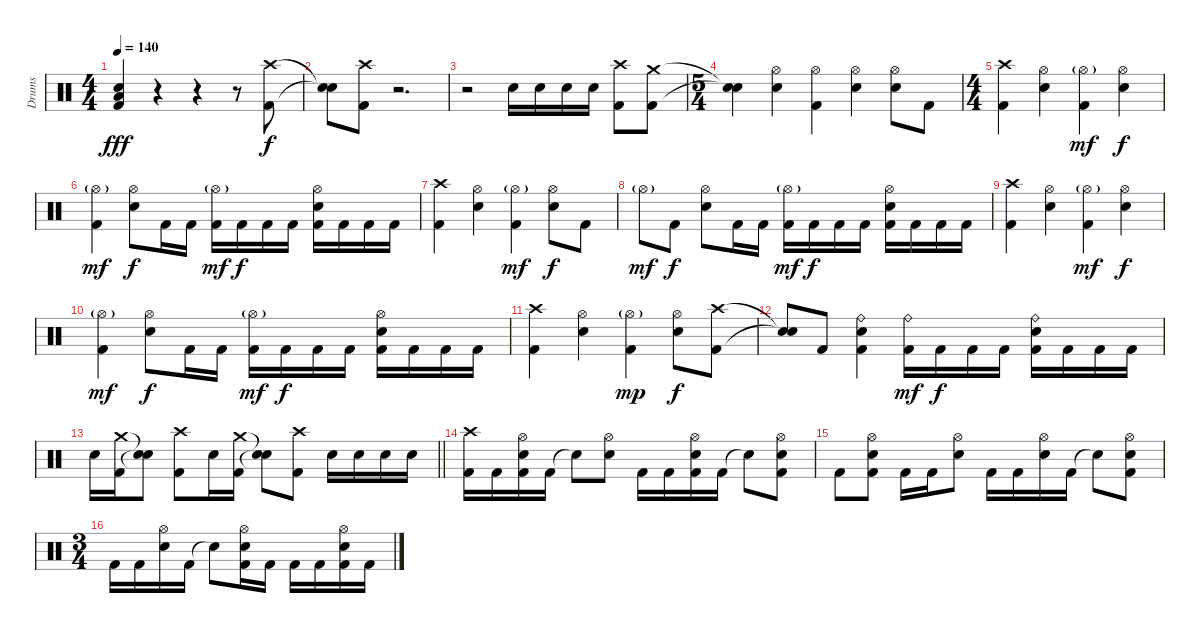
\track ("Drums" "Drums") {instrument percussion}
\staff {score}
\articulation defaults
\ts (4 4)
\tempo 140
\clef neutral
\ks c
("Low Tom (hit)" "Electric Snare (hit)" "Kick (hit) 2").4{dy fff} r.4 r.4 r.8 ("Crash high (hit)" "Kick (hit) 2").8{dy f} |
("Snare (hit)"{t} "Snare (hit)"{t}).8{volume 0} ("Crash high (hit)" "Kick (hit) 2").8{volume 16} r.2{d volume 0} |
r.2 "Electric Snare (hit)".16{volume 16} "Electric Snare (hit)".16 "Electric Snare (hit)".16 "Electric Snare (hit)".16 ("Crash high (hit)" "Kick (hit) 2").8 ("Crash medium (hit)" "Kick (hit) 2").8 |
\ts (5 4)
("Snare (hit)"{t} "Snare (hit)"{t}).4 ("Hi-Hat (open)" "Electric Snare (hit)").4 ("Hi-Hat (open)" "Kick (hit) 2").4 ("Hi-Hat (open)" "Electric Snare (hit)").4 ("Hi-Hat (open)" "Electric Snare (hit)").8 "Kick (hit) 2".8 |
\ts (4 4)
("Crash high (hit)" "Kick (hit) 2").4 ("Hi-Hat (open)" "Electric Snare (hit)").4 ("Hi-Hat (open)"{g} "Kick (hit) 2").4{dy mf} ("Hi-Hat (open)" "Electric Snare (hit)").4{dy f} |
("Hi-Hat (open)"{g} "Kick (hit) 2").4{dy mf} ("Hi-Hat (open)" "Electric Snare (hit)").8{dy f} "Kick (hit) 2".16 "Kick (hit) 2".16 ("Hi-Hat (open)"{g} "Kick (hit) 2").16{dy mf} "Kick (hit) 2".16{dy f} "Kick (hit) 2".16 "Kick (hit) 2".16 ("Hi-Hat (open)" "Electric Snare (hit)" "Kick (hit) 2").16 "Kick (hit) 2".16 "Kick (hit) 2".16 "Kick (hit) 2".16 |
("Crash high (hit)" "Kick (hit) 2").4 ("Hi-Hat (open)" "Electric Snare (hit)").4 ("Hi-Hat (open)"{g} "Kick (hit) 2").4{dy mf} ("Hi-Hat (open)" "Electric Snare (hit)").8{dy f} "Kick (hit) 2".8 |
"Hi-Hat (open)"{g}.8{dy mf} "Kick (hit) 2".8{dy f} ("Hi-Hat (open)" "Electric Snare (hit)").8 "Kick (hit) 2".16 "Kick (hit) 2".16 ("Hi-Hat (open)"{g} "Kick (hit) 2").16{dy mf} "Kick (hit) 2".16{dy f} "Kick (hit) 2".16 "Kick (hit) 2".16 ("Hi-Hat (open)" "Electric Snare (hit)" "Kick (hit) 2").16 "Kick (hit) 2".16 "Kick (hit) 2".16 "Kick (hit) 2".16 |
("Crash high (hit)" "Kick (hit) 2").4 ("Hi-Hat (open)" "Electric Snare (hit)").4 ("Hi-Hat (open)"{g} "Kick (hit) 2").4{dy mf} ("Hi-Hat (open)" "Electric Snare (hit)").4{dy f} |
("Hi-Hat (open)"{g} "Kick (hit) 2").4{dy mf} ("Hi-Hat (open)" "Electric Snare (hit)").8{dy f} "Kick (hit) 2".16 "Kick (hit) 2".16 ("Hi-Hat (open)"{g} "Kick (hit) 2").16{dy mf} "Kick (hit) 2".16{dy f} "Kick (hit) 2".16 "Kick (hit) 2".16 ("Hi-Hat (open)" "Electric Snare (hit)" "Kick (hit) 2").16 "Kick (hit) 2".16 "Kick (hit) 2".16 "Kick (hit) 2".16 |
("Crash high (hit)" "Kick (hit) 2").4 ("Hi-Hat (open)" "Electric Snare (hit)").4 ("Hi-Hat (open)"{g} "Kick (hit) 2").4{dy mp} ("Hi-Hat (open)" "Electric Snare (hit)").8{dy f} ("Crash high (hit)" "Kick (hit) 2").8 |
("Snare (hit)"{t} "Snare (hit)"{t}).8 "Kick (hit) 2".8 ("Ride (bell)" "Electric Snare (hit)" "Kick (hit) 2").4 ("Ride (bell)" "Kick (hit) 2").16{dy mf} "Kick (hit) 2".16{dy f} "Kick (hit) 2".16 "Kick (hit) 2".16 ("Ride (bell)" "Electric Snare (hit)" "Kick (hit) 2").16 "Kick (hit) 2".16 "Kick (hit) 2".16 "Kick (hit) 2".16 |
\barLineRight lightlight "Electric Snare (hit)".16
("Crash medium (hit)" "Kick (hit) 2").16 ("Snare (hit)"{t} "Snare (hit)"{t}).8 ("Crash high (hit)" "Kick (hit) 2").8 "Electric Snare (hit)".16 ("Crash medium (hit)" "Kick (hit) 2").16 ("Snare (hit)"{t} "Snare (hit)"{t}).8 ("Crash high (hit)" "Kick (hit) 2").8 "Electric Snare (hit)".16 "Electric Snare (hit)".16 "Electric Snare (hit)".16 "Electric Snare (hit)".16 |
("Crash high (hit)" "Kick (hit) 2").16 "Kick (hit) 2".16 ("Hi-Hat (open)" "Electric Snare (hit)" "Kick (hit) 2").16 "Kick (hit) 2".16 "Snare (hit)"{t}.8 ("Hi-Hat (open)" "Electric Snare (hit)").8 "Kick (hit) 2".16 "Kick (hit) 2".16 ("Hi-Hat (open)" "Electric Snare (hit)" "Kick (hit) 2").16 "Kick (hit) 2".16 "Snare (hit)"{t}.8 ("Hi-Hat (open)" "Electric Snare (hit)" "Kick (hit) 2").8 |
"Kick (hit) 2".8 ("Hi-Hat (open)" "Electric Snare (hit)" "Kick (hit) 2").8 "Kick (hit) 2".16 "Kick (hit) 2".16 ("Hi-Hat (open)" "Electric Snare (hit)").8 "Kick (hit) 2".16 "Kick (hit) 2".16 ("Hi-Hat (open)" "Electric Snare (hit)").16 "Kick (hit) 2".16 "Snare (hit)"{t}.8 ("Hi-Hat (open)" "Electric Snare (hit)" "Kick (hit) 2").8 |
\ts (3 4)
"Kick (hit) 2".16 "Kick (hit) 2".16 ("Hi-Hat (open)" "Electric Snare (hit)").16 "Kick (hit) 2".16 "Snare (hit)"{t}.8 ("Hi-Hat (open)" "Electric Snare (hit)" "Kick (hit) 2").16 "Kick (hit) 2".16 "Kick (hit) 2".16 "Kick (hit) 2".16 ("Hi-Hat (open)" "Electric Snare (hit)" "Kick (hit) 2").16 "Kick (hit) 2".16
